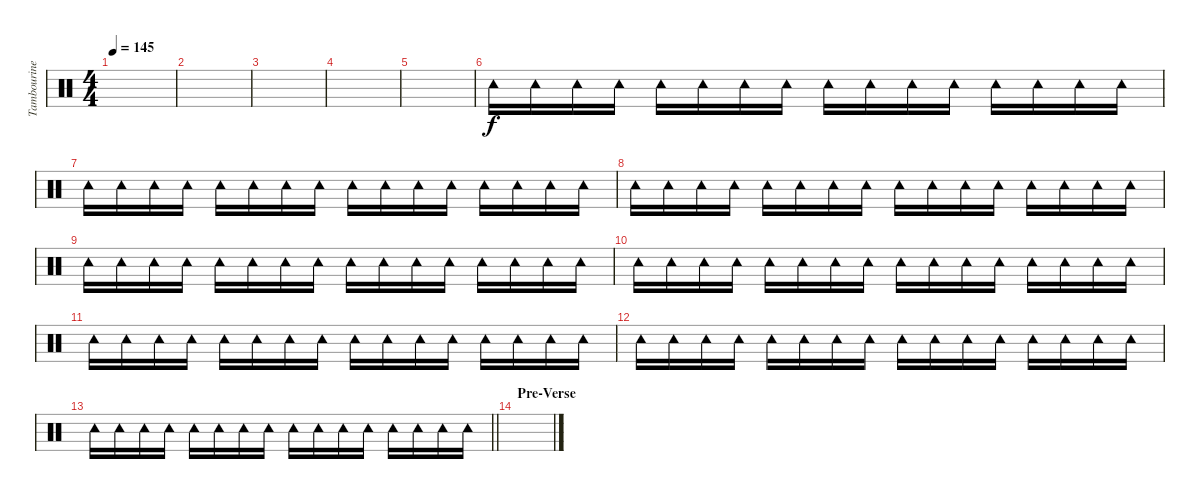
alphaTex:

\track ("Tambourine" "Tambourine") {instrument percussion}
\staff {score}
\articulation defaults
\ts (4 4)
\tempo 145
\clef neutral
\ks c
|
|
|
|
|
"Tambourine (hit)".16 "Tambourine (hit)".16 "Tambourine (hit)".16 "Tambourine (hit)".16 "Tambourine (hit)".16 "Tambourine (hit)".16 "Tambourine (hit)".16 "Tambourine (hit)".16 "Tambourine (hit)".16 "Tambourine (hit)".16 "Tambourine (hit)".16 "Tambourine (hit)".16 "Tambourine (hit)".16 "Tambourine (hit)".16 "Tambourine (hit)".16 "Tambourine (hit)".16 |
"Tambourine (hit)".16 "Tambourine (hit)".16 "Tambourine (hit)".16 "Tambourine (hit)".16 "Tambourine (hit)".16 "Tambourine (hit)".16 "Tambourine (hit)".16 "Tambourine (hit)".16 "Tambourine (hit)".16 "Tambourine (hit)".16 "Tambourine (hit)".16 "Tambourine (hit)".16 "Tambourine (hit)".16 "Tambourine (hit)".16 "Tambourine (hit)".16 "Tambourine (hit)".16 |
"Tambourine (hit)".16 "Tambourine (hit)".16 "Tambourine (hit)".16 "Tambourine (hit)".16 "Tambourine (hit)".16 "Tambourine (hit)".16 "Tambourine (hit)".16 "Tambourine (hit)".16 "Tambourine (hit)".16 "Tambourine (hit)".16 "Tambourine (hit)".16 "Tambourine (hit)".16 "Tambourine (hit)".16 "Tambourine (hit)".16 "Tambourine (hit)".16 "Tambourine (hit)".16 |
"Tambourine (hit)".16 "Tambourine (hit)".16 "Tambourine (hit)".16 "Tambourine (hit)".16 "Tambourine (hit)".16 "Tambourine (hit)".16 "Tambourine (hit)".16 "Tambourine (hit)".16 "Tambourine (hit)".16 "Tambourine (hit)".16 "Tambourine (hit)".16 "Tambourine (hit)".16 "Tambourine (hit)".16 "Tambourine (hit)".16 "Tambourine (hit)".16 "Tambourine (hit)".16 |
"Tambourine (hit)".16 "Tambourine (hit)".16 "Tambourine (hit)".16 "Tambourine (hit)".16 "Tambourine (hit)".16 "Tambourine (hit)".16 "Tambourine (hit)".16 "Tambourine (hit)".16 "Tambourine (hit)".16 "Tambourine (hit)".16 "Tambourine (hit)".16 "Tambourine (hit)".16 "Tambourine (hit)".16 "Tambourine (hit)".16 "Tambourine (hit)".16 "Tambourine (hit)".16 |
"Tambourine (hit)".16 "Tambourine (hit)".16 "Tambourine (hit)".16 "Tambourine (hit)".16 "Tambourine (hit)".16 "Tambourine (hit)".16 "Tambourine (hit)".16 "Tambourine (hit)".16 "Tambourine (hit)".16 "Tambourine (hit)".16 "Tambourine (hit)".16 "Tambourine (hit)".16 "Tambourine (hit)".16 "Tambourine (hit)".16 "Tambourine (hit)".16 "Tambourine (hit)".16 |
"Tambourine (hit)".16 "Tambourine (hit)".16 "Tambourine (hit)".16 "Tambourine (hit)".16 "Tambourine (hit)".16 "Tambourine (hit)".16 "Tambourine (hit)".16 "Tambourine (hit)".16 "Tambourine (hit)".16 "Tambourine (hit)".16 "Tambourine (hit)".16 "Tambourine (hit)".16 "Tambourine (hit)".16 "Tambourine (hit)".16 "Tambourine (hit)".16 "Tambourine (hit)".16 |
\barLineRight lightlight "Tambourine (hit)".16 "Tambourine (hit)".16 "Tambourine (hit)".16 "Tambourine (hit)".16 "Tambourine (hit)".16 "Tambourine (hit)".16 "Tambourine (hit)".16 "Tambourine (hit)".16 "Tambourine (hit)".16 "Tambourine (hit)".16 "Tambourine (hit)".16 "Tambourine (hit)".16 "Tambourine (hit)".16 "Tambourine (hit)".16 "Tambourine (hit)".16 "Tambourine (hit)".16
|
\section ("" "Pre-Verse")
